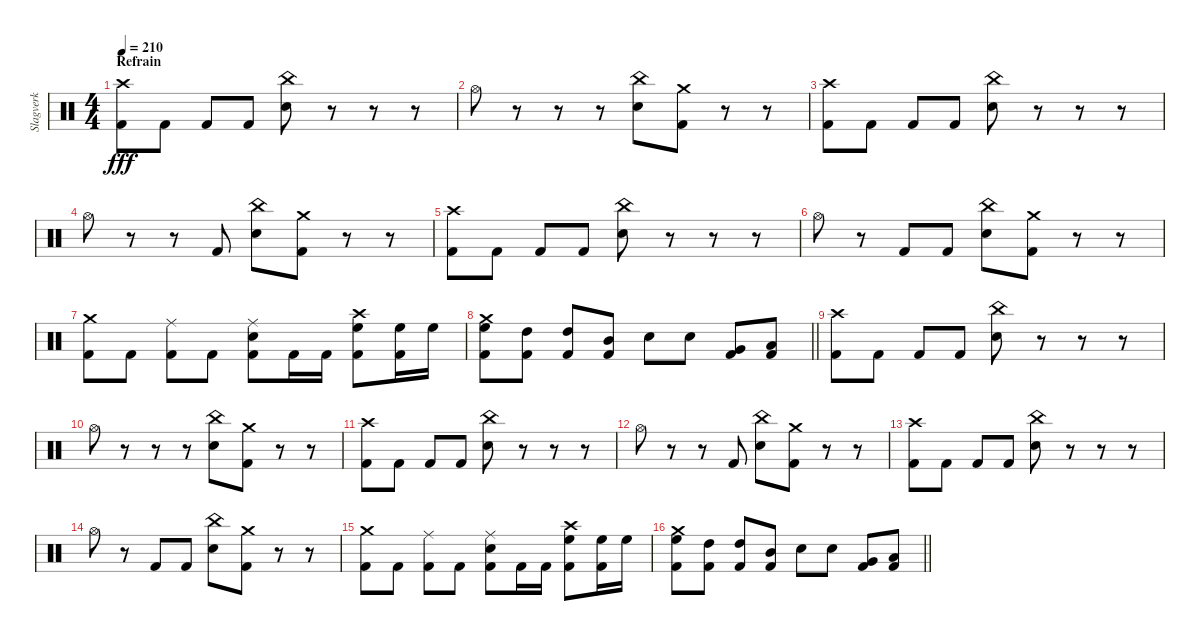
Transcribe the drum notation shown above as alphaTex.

\track ("Slagverk" "Slagverk") {instrument percussion}
\staff {score}
\articulation defaults
\ts (4 4)
\section ("" "Refrain")
\tempo 210
\clef neutral
\ks c
("Crash high (hit)" "Kick (hit) 2").8{dy fff} "Kick (hit) 2".8 "Kick (hit) 2".8 "Kick (hit) 2".8 ("China (hit)" "Electric Snare (hit)").8 r.8 r.8 r.8 |
"Hi-Hat (open)".8 r.8 r.8 r.8 ("China (hit)" "Electric Snare (hit)").8 ("Crash medium (hit)" "Kick (hit) 2").8 r.8 r.8 |
("Crash high (hit)" "Kick (hit) 2").8 "Kick (hit) 2".8 "Kick (hit) 2".8 "Kick (hit) 2".8 ("China (hit)" "Electric Snare (hit)").8 r.8 r.8 r.8 |
"Hi-Hat (open)".8 r.8 r.8 "Kick (hit) 2".8 ("China (hit)" "Electric Snare (hit)").8 ("Crash medium (hit)" "Kick (hit) 2").8 r.8 r.8 |
("Crash high (hit)" "Kick (hit) 2").8 "Kick (hit) 2".8 "Kick (hit) 2".8 "Kick (hit) 2".8 ("China (hit)" "Electric Snare (hit)").8 r.8 r.8 r.8 |
"Hi-Hat (open)".8 r.8 "Kick (hit) 2".8 "Kick (hit) 2".8 ("China (hit)" "Electric Snare (hit)").8 ("Crash medium (hit)" "Kick (hit) 2").8 r.8 r.8 |
("Crash medium (hit)" "Kick (hit) 2").8 "Kick (hit) 2".8 ("Ride (middle)" "Kick (hit) 2").8 "Kick (hit) 2".8 ("Ride (middle)" "Electric Snare (hit)" "Kick (hit) 2").8 "Kick (hit) 2".16 "Kick (hit) 2".16 ("Crash high (hit)" "High Floor Tom (hit)" "Kick (hit) 2").8 ("High Floor Tom (hit)" "Kick (hit) 2").16 "High Floor Tom (hit)".16 |
\barLineRight lightlight
("Crash medium (hit)" "High Floor Tom (hit)" "Kick (hit) 2").8 ("High Tom (hit)" "Kick (hit) 2").8 ("High Tom (hit)" "Kick (hit) 2").8 ("Mid Tom (hit)" "Kick (hit) 2").8 "Electric Snare (hit)".8 "Electric Snare (hit)".8 ("Very Low Tom (hit)" "Kick (hit) 2").8 ("Low Floor Tom (hit)" "Kick (hit) 2").8 |
("Crash high (hit)" "Kick (hit) 2").8 "Kick (hit) 2".8 "Kick (hit) 2".8 "Kick (hit) 2".8 ("China (hit)" "Electric Snare (hit)").8 r.8 r.8 r.8 |
"Hi-Hat (open)".8 r.8 r.8 r.8 ("China (hit)" "Electric Snare (hit)").8 ("Crash medium (hit)" "Kick (hit) 2").8 r.8 r.8 |
("Crash high (hit)" "Kick (hit) 2").8 "Kick (hit) 2".8 "Kick (hit) 2".8 "Kick (hit) 2".8 ("China (hit)" "Electric Snare (hit)").8 r.8 r.8 r.8 |
"Hi-Hat (open)".8 r.8 r.8 "Kick (hit) 2".8 ("China (hit)" "Electric Snare (hit)").8 ("Crash medium (hit)" "Kick (hit) 2").8 r.8 r.8 |
("Crash high (hit)" "Kick (hit) 2").8 "Kick (hit) 2".8 "Kick (hit) 2".8 "Kick (hit) 2".8 ("China (hit)" "Electric Snare (hit)").8 r.8 r.8 r.8 |
"Hi-Hat (open)".8 r.8 "Kick (hit) 2".8 "Kick (hit) 2".8 ("China (hit)" "Electric Snare (hit)").8 ("Crash medium (hit)" "Kick (hit) 2").8 r.8 r.8 |
("Crash medium (hit)" "Kick (hit) 2").8 "Kick (hit) 2".8 ("Ride (middle)" "Kick (hit) 2").8 "Kick (hit) 2".8 ("Ride (middle)" "Electric Snare (hit)" "Kick (hit) 2").8 "Kick (hit) 2".16 "Kick (hit) 2".16 ("Crash high (hit)" "High Floor Tom (hit)" "Kick (hit) 2").8 ("High Floor Tom (hit)" "Kick (hit) 2").16 "High Floor Tom (hit)".16 |
\barLineRight lightlight
("Crash medium (hit)" "High Floor Tom (hit)" "Kick (hit) 2").8 ("High Tom (hit)" "Kick (hit) 2").8 ("High Tom (hit)" "Kick (hit) 2").8 ("Mid Tom (hit)" "Kick (hit) 2").8 "Electric Snare (hit)".8 "Electric Snare (hit)".8 ("Very Low Tom (hit)" "Kick (hit) 2").8 ("Low Floor Tom (hit)" "Kick (hit) 2").8
